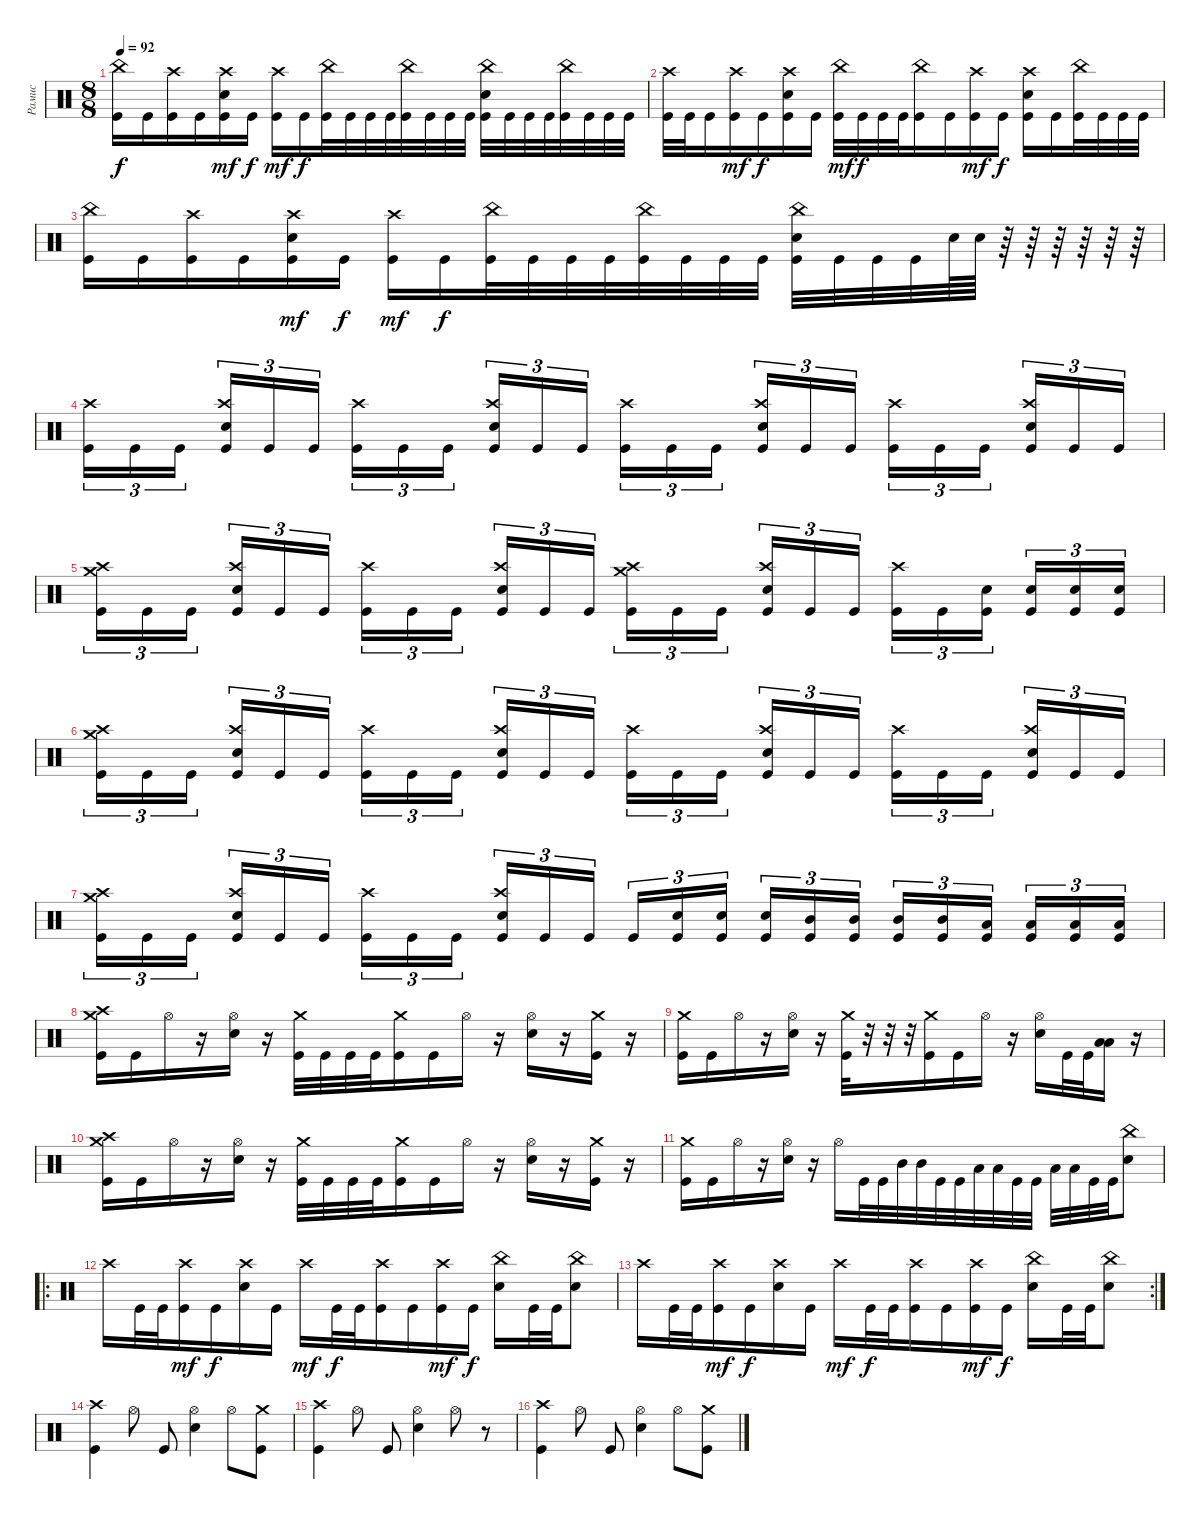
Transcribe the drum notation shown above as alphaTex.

\track ("Рамис" "Рамис") {instrument percussion}
\staff {score}
\articulation defaults
\ts (8 8)
\tempo 92
\clef neutral
\ks c
("China (hit)" "Kick (hit)").16{dy f} "Kick (hit)".16 ("Crash high (hit)" "Kick (hit)").16 "Kick (hit)".16 ("Crash high (hit)" "Kick (hit)" "Electric Snare (hit)").16{dy mf} "Kick (hit)".16{dy f} ("Crash high (hit)" "Kick (hit)").16{dy mf} "Kick (hit)".16{dy f} ("China (hit)" "Kick (hit)").32 "Kick (hit)".32 "Kick (hit)".32 "Kick (hit)".32 ("China (hit)" "Kick (hit)").32 "Kick (hit)".32 "Kick (hit)".32 "Kick (hit)".32 ("China (hit)" "Kick (hit)" "Electric Snare (hit)").32 "Kick (hit)".32 "Kick (hit)".32 "Kick (hit)".32 ("China (hit)" "Kick (hit)").32 "Kick (hit)".32 "Kick (hit)".32 "Kick (hit)".32 |
("Crash high (hit)" "Kick (hit)").32 "Kick (hit)".32 "Kick (hit)".16 ("Crash high (hit)" "Kick (hit)").16{dy mf} "Kick (hit)".16{dy f} ("Crash high (hit)" "Kick (hit)" "Electric Snare (hit)").16 "Kick (hit)".16 ("China (hit)" "Kick (hit)").32{dy mf} "Kick (hit)".32{dy f} "Kick (hit)".32 "Kick (hit)".32 ("China (hit)" "Kick (hit)").16 "Kick (hit)".16 ("Crash high (hit)" "Kick (hit)").16{dy mf} "Kick (hit)".16{dy f} ("Crash high (hit)" "Kick (hit)" "Electric Snare (hit)").16 "Kick (hit)".16 ("China (hit)" "Kick (hit)").32 "Kick (hit)".32 "Kick (hit)".32 "Kick (hit)".32 |
("China (hit)" "Kick (hit)").16 "Kick (hit)".16 ("Crash high (hit)" "Kick (hit)").16 "Kick (hit)".16 ("Crash high (hit)" "Kick (hit)" "Electric Snare (hit)").16{dy mf} "Kick (hit)".16{dy f} ("Crash high (hit)" "Kick (hit)").16{dy mf} "Kick (hit)".16{dy f} ("China (hit)" "Kick (hit)").32 "Kick (hit)".32 "Kick (hit)".32 "Kick (hit)".32 ("China (hit)" "Kick (hit)").32 "Kick (hit)".32 "Kick (hit)".32 "Kick (hit)".32 ("China (hit)" "Kick (hit)" "Electric Snare (hit)").32 "Kick (hit)".32 "Kick (hit)".32 "Kick (hit)".32 "Electric Snare (hit)".64 "Electric Snare (hit)".64 r.64 r.64 r.64 r.64 r.64 r.64 |
("Crash high (hit)" "Kick (hit)").16{tu (3 2)} "Kick (hit)".16{tu (3 2)} "Kick (hit)".16{tu (3 2)} ("Crash high (hit)" "Electric Snare (hit)" "Kick (hit)").16{tu (3 2)} "Kick (hit)".16{tu (3 2)} "Kick (hit)".16{tu (3 2)} ("Crash high (hit)" "Kick (hit)").16{tu (3 2)} "Kick (hit)".16{tu (3 2)} "Kick (hit)".16{tu (3 2)} ("Crash high (hit)" "Electric Snare (hit)" "Kick (hit)").16{tu (3 2)} "Kick (hit)".16{tu (3 2)} "Kick (hit)".16{tu (3 2)} ("Crash high (hit)" "Kick (hit)").16{tu (3 2)} "Kick (hit)".16{tu (3 2)} "Kick (hit)".16{tu (3 2)} ("Crash high (hit)" "Electric Snare (hit)" "Kick (hit)").16{tu (3 2)} "Kick (hit)".16{tu (3 2)} "Kick (hit)".16{tu (3 2)} ("Crash high (hit)" "Kick (hit)").16{tu (3 2)} "Kick (hit)".16{tu (3 2)} "Kick (hit)".16{tu (3 2)} ("Crash high (hit)" "Electric Snare (hit)" "Kick (hit)").16{tu (3 2)} "Kick (hit)".16{tu (3 2)} "Kick (hit)".16{tu (3 2)} |
("Crash medium (hit)" "Crash high (hit)" "Kick (hit)").16{tu (3 2)} "Kick (hit)".16{tu (3 2)} "Kick (hit)".16{tu (3 2)} ("Crash high (hit)" "Electric Snare (hit)" "Kick (hit)").16{tu (3 2)} "Kick (hit)".16{tu (3 2)} "Kick (hit)".16{tu (3 2)} ("Crash high (hit)" "Kick (hit)").16{tu (3 2)} "Kick (hit)".16{tu (3 2)} "Kick (hit)".16{tu (3 2)} ("Crash high (hit)" "Electric Snare (hit)" "Kick (hit)").16{tu (3 2)} "Kick (hit)".16{tu (3 2)} "Kick (hit)".16{tu (3 2)} ("Crash medium (hit)" "Crash high (hit)" "Kick (hit)").16{tu (3 2)} "Kick (hit)".16{tu (3 2)} "Kick (hit)".16{tu (3 2)} ("Crash high (hit)" "Electric Snare (hit)" "Kick (hit)").16{tu (3 2)} "Kick (hit)".16{tu (3 2)} "Kick (hit)".16{tu (3 2)} ("Crash high (hit)" "Kick (hit)").16{tu (3 2)} "Kick (hit)".16{tu (3 2)} ("Electric Snare (hit)" "Kick (hit)").16{tu (3 2)} ("Electric Snare (hit)" "Kick (hit)").16{tu (3 2)} ("Electric Snare (hit)" "Kick (hit)").16{tu (3 2)} ("Electric Snare (hit)" "Kick (hit)").16{tu (3 2)} |
("Crash medium (hit)" "Crash high (hit)" "Kick (hit)").16{tu (3 2)} "Kick (hit)".16{tu (3 2)} "Kick (hit)".16{tu (3 2)} ("Crash high (hit)" "Electric Snare (hit)" "Kick (hit)").16{tu (3 2)} "Kick (hit)".16{tu (3 2)} "Kick (hit)".16{tu (3 2)} ("Crash high (hit)" "Kick (hit)").16{tu (3 2)} "Kick (hit)".16{tu (3 2)} "Kick (hit)".16{tu (3 2)} ("Crash high (hit)" "Electric Snare (hit)" "Kick (hit)").16{tu (3 2)} "Kick (hit)".16{tu (3 2)} "Kick (hit)".16{tu (3 2)} ("Crash high (hit)" "Kick (hit)").16{tu (3 2)} "Kick (hit)".16{tu (3 2)} "Kick (hit)".16{tu (3 2)} ("Crash high (hit)" "Electric Snare (hit)" "Kick (hit)").16{tu (3 2)} "Kick (hit)".16{tu (3 2)} "Kick (hit)".16{tu (3 2)} ("Crash high (hit)" "Kick (hit)").16{tu (3 2)} "Kick (hit)".16{tu (3 2)} "Kick (hit)".16{tu (3 2)} ("Crash high (hit)" "Electric Snare (hit)" "Kick (hit)").16{tu (3 2)} "Kick (hit)".16{tu (3 2)} "Kick (hit)".16{tu (3 2)} |
("Crash medium (hit)" "Crash high (hit)" "Kick (hit)").16{tu (3 2)} "Kick (hit)".16{tu (3 2)} "Kick (hit)".16{tu (3 2)} ("Crash high (hit)" "Electric Snare (hit)" "Kick (hit)").16{tu (3 2)} "Kick (hit)".16{tu (3 2)} "Kick (hit)".16{tu (3 2)} ("Crash high (hit)" "Kick (hit)").16{tu (3 2)} "Kick (hit)".16{tu (3 2)} "Kick (hit)".16{tu (3 2)} ("Crash high (hit)" "Electric Snare (hit)" "Kick (hit)").16{tu (3 2)} "Kick (hit)".16{tu (3 2)} "Kick (hit)".16{tu (3 2)} "Kick (hit)".16{tu (3 2)} ("Electric Snare (hit)" "Kick (hit)").16{tu (3 2)} ("Electric Snare (hit)" "Kick (hit)").16{tu (3 2)} ("Electric Snare (hit)" "Kick (hit)").16{tu (3 2)} ("Mid Tom (hit)" "Kick (hit)").16{tu (3 2)} ("Mid Tom (hit)" "Kick (hit)").16{tu (3 2)} ("Mid Tom (hit)" "Kick (hit)").16{tu (3 2)} ("Mid Tom (hit)" "Kick (hit)").16{tu (3 2)} ("Low Tom (hit)" "Kick (hit)").16{tu (3 2)} ("Low Tom (hit)" "Kick (hit)").16{tu (3 2)} ("Low Tom (hit)" "Kick (hit)").16{tu (3 2)} ("Low Tom (hit)" "Kick (hit)").16{tu (3 2)} |
("Crash high (hit)" "Crash medium (hit)" "Kick (hit)").16 "Kick (hit)".16 "Hi-Hat (open)".16 r.16 ("Hi-Hat (open)" "Electric Snare (hit)").16 r.16 ("Crash medium (hit)" "Kick (hit)").32 "Kick (hit)".32 "Kick (hit)".32 "Kick (hit)".32 ("Crash medium (hit)" "Kick (hit)").16 "Kick (hit)".16 "Hi-Hat (open)".16 r.16 ("Hi-Hat (open)" "Electric Snare (hit)").16 r.16 ("Crash medium (hit)" "Kick (hit)").16 r.16 |
("Crash medium (hit)" "Kick (hit)").16 "Kick (hit)".16 "Hi-Hat (open)".16 r.16 ("Hi-Hat (open)" "Electric Snare (hit)").16 r.16 ("Crash medium (hit)" "Kick (hit)").32 r.32 r.32 r.32 ("Crash medium (hit)" "Kick (hit)").16 "Kick (hit)".16 "Hi-Hat (open)".16 r.16 ("Hi-Hat (open)" "Electric Snare (hit)").16 "Kick (hit)".32 "Kick (hit)".32 ("Low Tom (hit)" "Low Floor Tom (hit)").16 r.16 |
("Crash medium (hit)" "Crash high (hit)" "Kick (hit)").16 "Kick (hit)".16 "Hi-Hat (open)".16 r.16 ("Hi-Hat (open)" "Electric Snare (hit)").16 r.16 ("Crash medium (hit)" "Kick (hit)").32 "Kick (hit)".32 "Kick (hit)".32 "Kick (hit)".32 ("Crash medium (hit)" "Kick (hit)").16 "Kick (hit)".16 "Hi-Hat (open)".16 r.16 ("Hi-Hat (open)" "Electric Snare (hit)").16 r.16 ("Crash medium (hit)" "Kick (hit)").16 r.16 |
("Crash medium (hit)" "Kick (hit)").16 "Kick (hit)".16 "Hi-Hat (open)".16 r.16 ("Hi-Hat (open)" "Electric Snare (hit)").16 r.16 "Hi-Hat (open)".16 "Kick (hit)".32 "Kick (hit)".32 "Mid Tom (hit)".32 "Mid Tom (hit)".32 "Kick (hit)".32 "Kick (hit)".32 "Low Tom (hit)".32 "Low Tom (hit)".32 "Kick (hit)".32 "Kick (hit)".32 "Low Floor Tom (hit)".32 "Low Floor Tom (hit)".32 "Kick (hit)".32 "Kick (hit)".32 ("China (hit)" "Electric Snare (hit)").8 |
\ro "Crash high (hit)".16 "Kick (hit)".32 "Kick (hit)".32
("Crash high (hit)" "Kick (hit)").16{dy mf} "Kick (hit)".16{dy f} ("Crash high (hit)" "Electric Snare (hit)").16 "Kick (hit)".16 "Crash high (hit)".16{dy mf} "Kick (hit)".32{dy f} "Kick (hit)".32 ("Crash high (hit)" "Kick (hit)").16 "Kick (hit)".16 ("Crash high (hit)" "Kick (hit)").16{dy mf} "Kick (hit)".16{dy f} ("China (hit)" "Electric Snare (hit)").16 "Kick (hit)".32 "Kick (hit)".32 ("China (hit)" "Electric Snare (hit)").8 |
\rc 2 "Crash high (hit)".16 "Kick (hit)".32 "Kick (hit)".32
("Crash high (hit)" "Kick (hit)").16{dy mf} "Kick (hit)".16{dy f} ("Crash high (hit)" "Electric Snare (hit)").16 "Kick (hit)".16 "Crash high (hit)".16{dy mf} "Kick (hit)".32{dy f} "Kick (hit)".32 ("Crash high (hit)" "Kick (hit)").16 "Kick (hit)".16 ("Crash high (hit)" "Kick (hit)").16{dy mf} "Kick (hit)".16{dy f} ("China (hit)" "Electric Snare (hit)").16 "Kick (hit)".32 "Kick (hit)".32 ("China (hit)" "Electric Snare (hit)").8 |
("Crash high (hit)" "Kick (hit)").4 "Hi-Hat (open)".8 "Kick (hit)".8 ("Hi-Hat (open)" "Electric Snare (hit)").4 "Hi-Hat (open)".8 ("Crash medium (hit)" "Kick (hit)").8 |
("Crash high (hit)" "Kick (hit)").4 "Hi-Hat (open)".8 "Kick (hit)".8 ("Hi-Hat (open)" "Electric Snare (hit)").4 "Hi-Hat (open)".8 r.8 |
("Crash high (hit)" "Kick (hit)").4 "Hi-Hat (open)".8 "Kick (hit)".8 ("Hi-Hat (open)" "Electric Snare (hit)").4 "Hi-Hat (open)".8 ("Crash medium (hit)" "Kick (hit)").8
